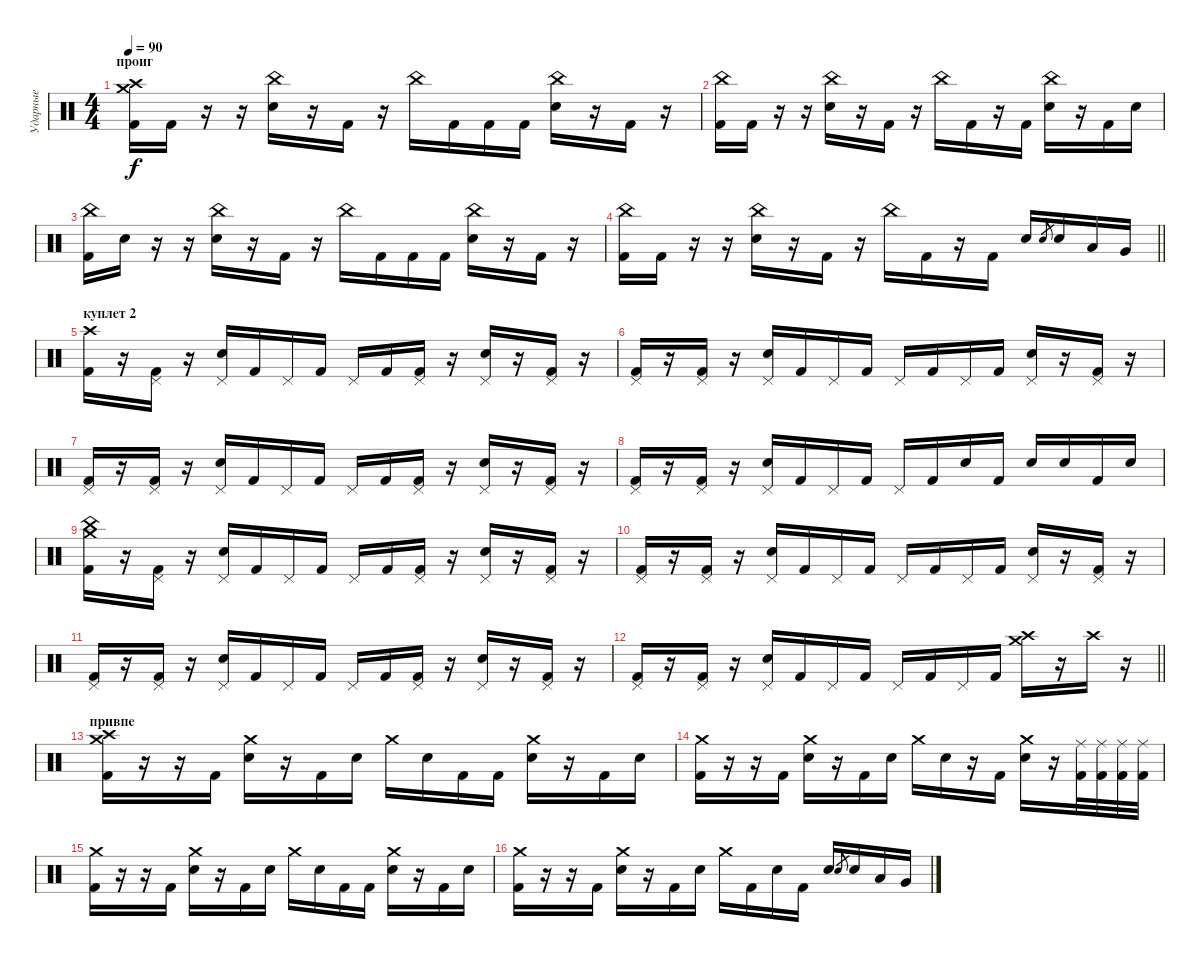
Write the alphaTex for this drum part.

\track ("Ударные" "Ударные") {instrument percussion}
\staff {score}
\articulation defaults
\ts (4 4)
\section ("" "проиг")
\tempo 90
\clef neutral
\ks c
("Crash medium (hit)" "Crash high (hit)" "Kick (hit) 2").16{dy f} "Kick (hit) 2".16 r.16 r.16 ("China (hit)" "Snare (hit) 2").16 r.16 "Kick (hit) 2".16 r.16 "China (hit)".16 "Kick (hit) 2".16 "Kick (hit) 2".16 "Kick (hit) 2".16 ("China (hit)" "Snare (hit) 2").16 r.16 "Kick (hit) 2".16 r.16 |
("China (hit)" "Kick (hit) 2").16 "Kick (hit) 2".16 r.16 r.16 ("China (hit)" "Snare (hit) 2").16 r.16 "Kick (hit) 2".16 r.16 "China (hit)".16 "Kick (hit) 2".16 r.16 "Kick (hit) 2".16 ("China (hit)" "Snare (hit) 2").16 r.16 "Kick (hit) 2".16 "Snare (hit) 2".16 |
("China (hit)" "Kick (hit) 2").16 "Snare (hit) 2".16 r.16 r.16 ("China (hit)" "Snare (hit) 2").16 r.16 "Kick (hit) 2".16 r.16 "China (hit)".16 "Kick (hit) 2".16 "Kick (hit) 2".16 "Kick (hit) 2".16 ("China (hit)" "Snare (hit) 2").16 r.16 "Kick (hit) 2".16 r.16 |
\barLineRight lightlight
("China (hit)" "Kick (hit) 2").16 "Kick (hit) 2".16 r.16 r.16 ("China (hit)" "Snare (hit) 2").16 r.16 "Kick (hit) 2".16 r.16 "China (hit)".16 "Kick (hit) 2".16 r.16 "Kick (hit) 2".16 "Snare (hit) 2".16 "Snare (hit) 2".8{gr} "Snare (hit) 2".16 "Low Floor Tom (hit)".16 "Very Low Tom (hit)".16 |
\section ("" "куплет 2")
("Crash high (hit)" "Kick (hit) 2").16 r.16 ("Pedal Hi-Hat (hit)" "Kick (hit) 2").16 r.16 ("Pedal Hi-Hat (hit)" "Snare (hit) 2").16 "Kick (hit) 2".16 "Pedal Hi-Hat (hit)".16 "Kick (hit) 2".16 "Pedal Hi-Hat (hit)".16 "Kick (hit) 2".16 ("Pedal Hi-Hat (hit)" "Kick (hit) 2").16 r.16 ("Pedal Hi-Hat (hit)" "Snare (hit) 2").16 r.16 ("Pedal Hi-Hat (hit)" "Kick (hit) 2").16 r.16 |
("Pedal Hi-Hat (hit)" "Kick (hit) 2").16 r.16 ("Pedal Hi-Hat (hit)" "Kick (hit) 2").16 r.16 ("Pedal Hi-Hat (hit)" "Snare (hit) 2").16 "Kick (hit) 2".16 "Pedal Hi-Hat (hit)".16 "Kick (hit) 2".16 "Pedal Hi-Hat (hit)".16 "Kick (hit) 2".16 "Pedal Hi-Hat (hit)".16 "Kick (hit) 2".16 ("Pedal Hi-Hat (hit)" "Snare (hit) 2").16 r.16 ("Pedal Hi-Hat (hit)" "Kick (hit) 2").16 r.16 |
("Pedal Hi-Hat (hit)" "Kick (hit) 2").16 r.16 ("Pedal Hi-Hat (hit)" "Kick (hit) 2").16 r.16 ("Pedal Hi-Hat (hit)" "Snare (hit) 2").16 "Kick (hit) 2".16 "Pedal Hi-Hat (hit)".16 "Kick (hit) 2".16 "Pedal Hi-Hat (hit)".16 "Kick (hit) 2".16 ("Pedal Hi-Hat (hit)" "Kick (hit) 2").16 r.16 ("Pedal Hi-Hat (hit)" "Snare (hit) 2").16 r.16 ("Pedal Hi-Hat (hit)" "Kick (hit) 2").16 r.16 |
("Pedal Hi-Hat (hit)" "Kick (hit) 2").16 r.16 ("Pedal Hi-Hat (hit)" "Kick (hit) 2").16 r.16 ("Pedal Hi-Hat (hit)" "Snare (hit) 2").16 "Kick (hit) 2".16 "Pedal Hi-Hat (hit)".16 "Kick (hit) 2".16 "Pedal Hi-Hat (hit)".16 "Kick (hit) 2".16 "Snare (hit) 2".16 "Kick (hit) 2".16 "Snare (hit) 2".16 "Snare (hit) 2".16 "Kick (hit) 2".16 "Snare (hit) 2".16 |
("China (hit)" "Crash medium (hit)" "Kick (hit) 2").16 r.16 ("Pedal Hi-Hat (hit)" "Kick (hit) 2").16 r.16 ("Pedal Hi-Hat (hit)" "Snare (hit) 2").16 "Kick (hit) 2".16 "Pedal Hi-Hat (hit)".16 "Kick (hit) 2".16 "Pedal Hi-Hat (hit)".16 "Kick (hit) 2".16 ("Pedal Hi-Hat (hit)" "Kick (hit) 2").16 r.16 ("Pedal Hi-Hat (hit)" "Snare (hit) 2").16 r.16 ("Pedal Hi-Hat (hit)" "Kick (hit) 2").16 r.16 |
("Pedal Hi-Hat (hit)" "Kick (hit) 2").16 r.16 ("Pedal Hi-Hat (hit)" "Kick (hit) 2").16 r.16 ("Pedal Hi-Hat (hit)" "Snare (hit) 2").16 "Kick (hit) 2".16 "Pedal Hi-Hat (hit)".16 "Kick (hit) 2".16 "Pedal Hi-Hat (hit)".16 "Kick (hit) 2".16 "Pedal Hi-Hat (hit)".16 "Kick (hit) 2".16 ("Pedal Hi-Hat (hit)" "Snare (hit) 2").16 r.16 ("Pedal Hi-Hat (hit)" "Kick (hit) 2").16 r.16 |
("Pedal Hi-Hat (hit)" "Kick (hit) 2").16 r.16 ("Pedal Hi-Hat (hit)" "Kick (hit) 2").16 r.16 ("Pedal Hi-Hat (hit)" "Snare (hit) 2").16 "Kick (hit) 2".16 "Pedal Hi-Hat (hit)".16 "Kick (hit) 2".16 "Pedal Hi-Hat (hit)".16 "Kick (hit) 2".16 ("Pedal Hi-Hat (hit)" "Kick (hit) 2").16 r.16 ("Pedal Hi-Hat (hit)" "Snare (hit) 2").16 r.16 ("Pedal Hi-Hat (hit)" "Kick (hit) 2").16 r.16 |
\barLineRight lightlight
("Pedal Hi-Hat (hit)" "Kick (hit) 2").16 r.16 ("Pedal Hi-Hat (hit)" "Kick (hit) 2").16 r.16 ("Pedal Hi-Hat (hit)" "Snare (hit) 2").16 "Kick (hit) 2".16 "Pedal Hi-Hat (hit)".16 "Kick (hit) 2".16 "Pedal Hi-Hat (hit)".16 "Kick (hit) 2".16 "Pedal Hi-Hat (hit)".16 "Kick (hit) 2".16 ("Crash high (hit)" "Crash medium (hit)").16 r.16 "Crash high (hit)".16 r.16 |
\section ("" "привпе")
("Crash medium (hit)" "Crash high (hit)" "Kick (hit) 2").16 r.16 r.16 "Kick (hit) 2".16 ("Crash medium (hit)" "Snare (hit) 2").16 r.16 "Kick (hit) 2".16 "Snare (hit) 2".16 "Crash medium (hit)".16 "Snare (hit) 2".16 "Kick (hit) 2".16 "Kick (hit) 2".16 ("Crash medium (hit)" "Snare (hit) 2").16 r.16 "Kick (hit) 2".16 "Snare (hit) 2".16 |
("Crash medium (hit)" "Kick (hit) 2").16 r.16 r.16 "Kick (hit) 2".16 ("Crash medium (hit)" "Snare (hit) 2").16 r.16 "Kick (hit) 2".16 "Snare (hit) 2".16 "Crash medium (hit)".16 "Snare (hit) 2".16 r.16 "Kick (hit) 2".16 ("Crash medium (hit)" "Snare (hit) 2").16 r.16 ("Ride (middle)" "Kick (hit) 2").32 ("Ride (middle)" "Kick (hit) 2").32 ("Ride (middle)" "Kick (hit) 2").32 ("Ride (middle)" "Kick (hit) 2").32 |
("Crash medium (hit)" "Kick (hit) 2").16 r.16 r.16 "Kick (hit) 2".16 ("Crash medium (hit)" "Snare (hit) 2").16 r.16 "Kick (hit) 2".16 "Snare (hit) 2".16 "Crash medium (hit)".16 "Snare (hit) 2".16 "Kick (hit) 2".16 "Kick (hit) 2".16 ("Crash medium (hit)" "Snare (hit) 2").16 r.16 "Kick (hit) 2".16 "Snare (hit) 2".16 |
("Crash medium (hit)" "Kick (hit) 2").16 r.16 r.16 "Kick (hit) 2".16 ("Crash medium (hit)" "Snare (hit) 2").16 r.16 "Kick (hit) 2".16 "Snare (hit) 2".16 "Crash medium (hit)".16 "Kick (hit) 2".16 "Snare (hit) 2".16 "Kick (hit) 2".16 "Snare (hit) 2".16 "Snare (hit) 2".8{gr} "Snare (hit) 2".16 "Low Floor Tom (hit)".16 "Very Low Tom (hit)".16
